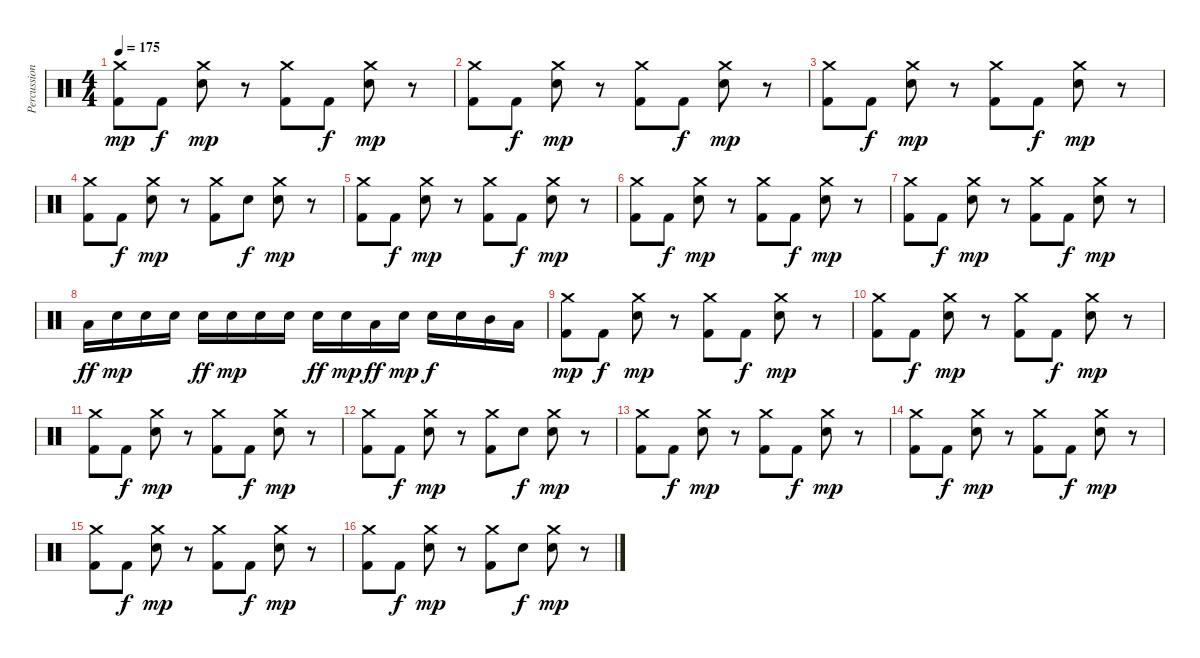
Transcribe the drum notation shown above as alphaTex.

\track ("Percussions" "Percussion") {instrument percussion}
\staff {score}
\articulation defaults
\ts (4 4)
\tempo 175
\clef neutral
\ks c
("Crash medium (hit)" "Kick (hit) 2").8{dy mp} "Kick (hit) 2".8{dy f} ("Crash medium (hit)" "Snare (hit) 2").8{dy mp} r.8 ("Crash medium (hit)" "Kick (hit) 2").8 "Kick (hit) 2".8{dy f} ("Crash medium (hit)" "Snare (hit) 2").8{dy mp} r.8 |
("Crash medium (hit)" "Kick (hit) 2").8 "Kick (hit) 2".8{dy f} ("Crash medium (hit)" "Snare (hit) 2").8{dy mp} r.8 ("Crash medium (hit)" "Kick (hit) 2").8 "Kick (hit) 2".8{dy f} ("Crash medium (hit)" "Snare (hit) 2").8{dy mp} r.8 |
("Crash medium (hit)" "Kick (hit) 2").8 "Kick (hit) 2".8{dy f} ("Crash medium (hit)" "Snare (hit) 2").8{dy mp} r.8 ("Crash medium (hit)" "Kick (hit) 2").8 "Kick (hit) 2".8{dy f} ("Crash medium (hit)" "Snare (hit) 2").8{dy mp} r.8 |
("Crash medium (hit)" "Kick (hit) 2").8 "Kick (hit) 2".8{dy f} ("Crash medium (hit)" "Snare (hit) 2").8{dy mp} r.8 ("Crash medium (hit)" "Kick (hit) 2").8 "Snare (hit) 2".8{dy f} ("Crash medium (hit)" "Snare (hit) 2").8{dy mp} r.8 |
("Crash medium (hit)" "Kick (hit) 2").8 "Kick (hit) 2".8{dy f} ("Crash medium (hit)" "Snare (hit) 2").8{dy mp} r.8 ("Crash medium (hit)" "Kick (hit) 2").8 "Kick (hit) 2".8{dy f} ("Crash medium (hit)" "Snare (hit) 2").8{dy mp} r.8 |
("Crash medium (hit)" "Kick (hit) 2").8 "Kick (hit) 2".8{dy f} ("Crash medium (hit)" "Snare (hit) 2").8{dy mp} r.8 ("Crash medium (hit)" "Kick (hit) 2").8 "Kick (hit) 2".8{dy f} ("Crash medium (hit)" "Snare (hit) 2").8{dy mp} r.8 |
("Crash medium (hit)" "Kick (hit) 2").8 "Kick (hit) 2".8{dy f} ("Crash medium (hit)" "Snare (hit) 2").8{dy mp} r.8 ("Crash medium (hit)" "Kick (hit) 2").8 "Kick (hit) 2".8{dy f} ("Crash medium (hit)" "Snare (hit) 2").8{dy mp} r.8 |
"Low Tom (hit)".16{dy ff} "Snare (hit) 2".16{dy mp} "Snare (hit) 2".16 "Snare (hit) 2".16 "Snare (hit) 2".16{dy ff} "Snare (hit) 2".16{dy mp} "Snare (hit) 2".16 "Snare (hit) 2".16 "Snare (hit) 2".16{dy ff} "Snare (hit) 2".16{dy mp} "Low Tom (hit)".16{dy ff} "Snare (hit) 2".16{dy mp} "Snare (hit) 2".16{dy f} "Snare (hit) 2".16 "Mid Tom (hit)".16 "Low Tom (hit)".16 |
("Crash medium (hit)" "Kick (hit) 2").8{dy mp} "Kick (hit) 2".8{dy f} ("Crash medium (hit)" "Snare (hit) 2").8{dy mp} r.8 ("Crash medium (hit)" "Kick (hit) 2").8 "Kick (hit) 2".8{dy f} ("Crash medium (hit)" "Snare (hit) 2").8{dy mp} r.8 |
("Crash medium (hit)" "Kick (hit) 2").8 "Kick (hit) 2".8{dy f} ("Crash medium (hit)" "Snare (hit) 2").8{dy mp} r.8 ("Crash medium (hit)" "Kick (hit) 2").8 "Kick (hit) 2".8{dy f} ("Crash medium (hit)" "Snare (hit) 2").8{dy mp} r.8 |
("Crash medium (hit)" "Kick (hit) 2").8 "Kick (hit) 2".8{dy f} ("Crash medium (hit)" "Snare (hit) 2").8{dy mp} r.8 ("Crash medium (hit)" "Kick (hit) 2").8 "Kick (hit) 2".8{dy f} ("Crash medium (hit)" "Snare (hit) 2").8{dy mp} r.8 |
("Crash medium (hit)" "Kick (hit) 2").8 "Kick (hit) 2".8{dy f} ("Crash medium (hit)" "Snare (hit) 2").8{dy mp} r.8 ("Crash medium (hit)" "Kick (hit) 2").8 "Snare (hit) 2".8{dy f} ("Crash medium (hit)" "Snare (hit) 2").8{dy mp} r.8 |
("Crash medium (hit)" "Kick (hit) 2").8 "Kick (hit) 2".8{dy f} ("Crash medium (hit)" "Snare (hit) 2").8{dy mp} r.8 ("Crash medium (hit)" "Kick (hit) 2").8 "Kick (hit) 2".8{dy f} ("Crash medium (hit)" "Snare (hit) 2").8{dy mp} r.8 |
("Crash medium (hit)" "Kick (hit) 2").8 "Kick (hit) 2".8{dy f} ("Crash medium (hit)" "Snare (hit) 2").8{dy mp} r.8 ("Crash medium (hit)" "Kick (hit) 2").8 "Kick (hit) 2".8{dy f} ("Crash medium (hit)" "Snare (hit) 2").8{dy mp} r.8 |
("Crash medium (hit)" "Kick (hit) 2").8 "Kick (hit) 2".8{dy f} ("Crash medium (hit)" "Snare (hit) 2").8{dy mp} r.8 ("Crash medium (hit)" "Kick (hit) 2").8 "Kick (hit) 2".8{dy f} ("Crash medium (hit)" "Snare (hit) 2").8{dy mp} r.8 |
("Crash medium (hit)" "Kick (hit) 2").8 "Kick (hit) 2".8{dy f} ("Crash medium (hit)" "Snare (hit) 2").8{dy mp} r.8 ("Crash medium (hit)" "Kick (hit) 2").8 "Snare (hit) 2".8{dy f} ("Crash medium (hit)" "Snare (hit) 2").8{dy mp} r.8
